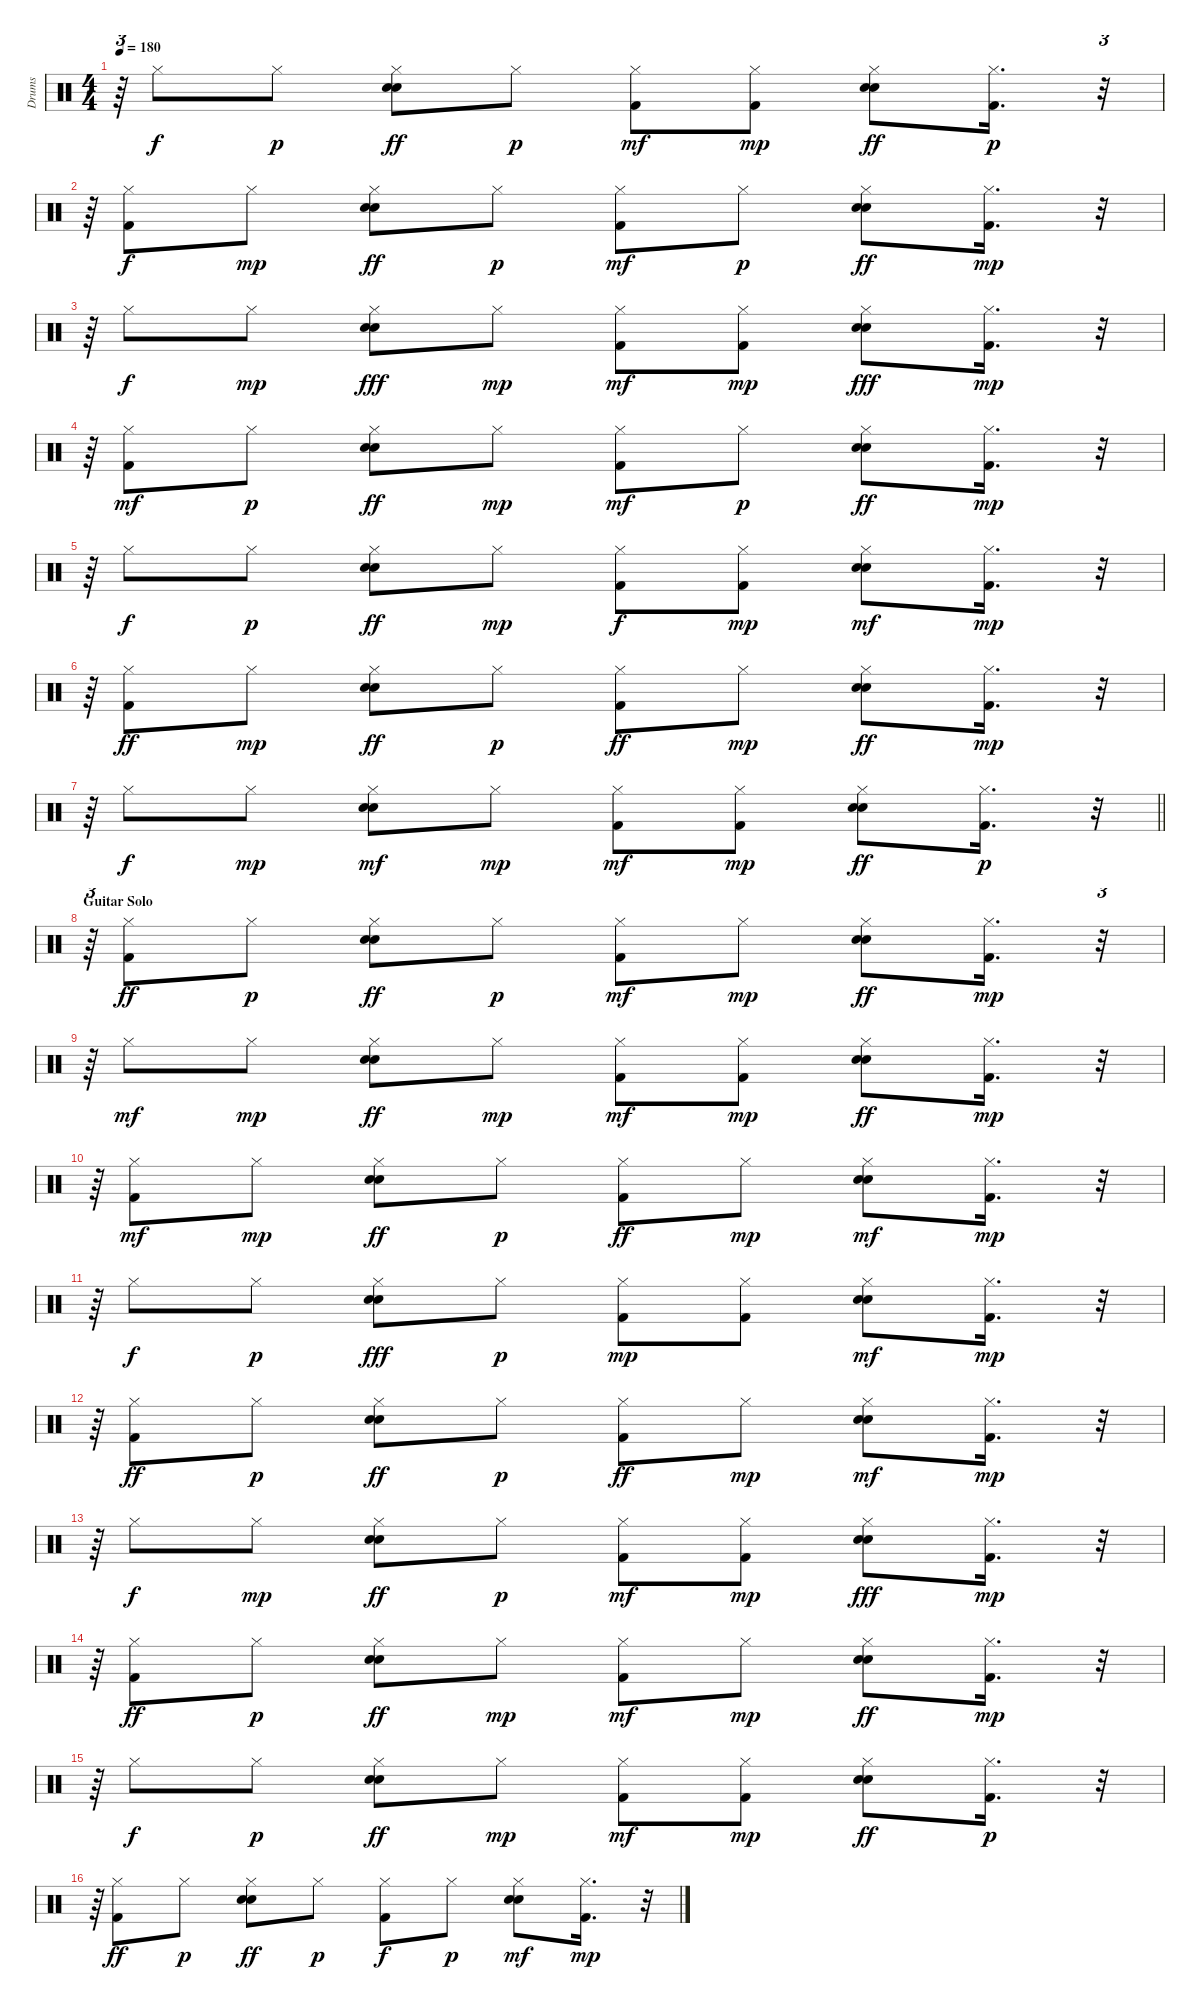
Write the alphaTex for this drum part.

\track ("Drums" "Drums") {instrument percussion}
\staff {score}
\articulation defaults
\ts (4 4)
\tempo 180
\clef neutral
\ks c
r.64{tu (3 2) dy mp} "Hi-Hat (closed)".8{dy f} "Hi-Hat (closed)".8{dy p} ("Electric Snare (hit)" "Snare (hit) 2" "Hi-Hat (closed)").8{dy ff} "Hi-Hat (closed)".8{dy p} ("Kick (hit) 2" "Hi-Hat (closed)").8{dy mf} ("Kick (hit) 2" "Hi-Hat (closed)").8{dy mp} ("Electric Snare (hit)" "Snare (hit) 2" "Hi-Hat (closed)").8{dy ff} ("Kick (hit) 2" "Hi-Hat (closed)").16{d dy p} r.32{tu (3 2)} |
r.64{tu (3 2)} ("Kick (hit) 2" "Hi-Hat (closed)").8{dy f} "Hi-Hat (closed)".8{dy mp} ("Electric Snare (hit)" "Snare (hit) 2" "Hi-Hat (closed)").8{dy ff} "Hi-Hat (closed)".8{dy p} ("Kick (hit) 2" "Hi-Hat (closed)").8{dy mf} "Hi-Hat (closed)".8{dy p} ("Electric Snare (hit)" "Snare (hit) 2" "Hi-Hat (closed)").8{dy ff} ("Kick (hit) 2" "Hi-Hat (closed)").16{d dy mp} r.32{tu (3 2)} |
r.64{tu (3 2)} "Hi-Hat (closed)".8{dy f} "Hi-Hat (closed)".8{dy mp} ("Electric Snare (hit)" "Snare (hit) 2" "Hi-Hat (closed)").8{dy fff} "Hi-Hat (closed)".8{dy mp} ("Kick (hit) 2" "Hi-Hat (closed)").8{dy mf} ("Kick (hit) 2" "Hi-Hat (closed)").8{dy mp} ("Electric Snare (hit)" "Snare (hit) 2" "Hi-Hat (closed)").8{dy fff} ("Kick (hit) 2" "Hi-Hat (closed)").16{d dy mp} r.32{tu (3 2)} |
r.64{tu (3 2)} ("Kick (hit) 2" "Hi-Hat (closed)").8{dy mf} "Hi-Hat (closed)".8{dy p} ("Electric Snare (hit)" "Snare (hit) 2" "Hi-Hat (closed)").8{dy ff} "Hi-Hat (closed)".8{dy mp} ("Kick (hit) 2" "Hi-Hat (closed)").8{dy mf} "Hi-Hat (closed)".8{dy p} ("Electric Snare (hit)" "Snare (hit) 2" "Hi-Hat (closed)").8{dy ff} ("Kick (hit) 2" "Hi-Hat (closed)").16{d dy mp} r.32{tu (3 2)} |
r.64{tu (3 2)} "Hi-Hat (closed)".8{dy f} "Hi-Hat (closed)".8{dy p} ("Electric Snare (hit)" "Snare (hit) 2" "Hi-Hat (closed)").8{dy ff} "Hi-Hat (closed)".8{dy mp} ("Kick (hit) 2" "Hi-Hat (closed)").8{dy f} ("Kick (hit) 2" "Hi-Hat (closed)").8{dy mp} ("Electric Snare (hit)" "Snare (hit) 2" "Hi-Hat (closed)").8{dy mf} ("Kick (hit) 2" "Hi-Hat (closed)").16{d dy mp} r.32{tu (3 2)} |
r.64{tu (3 2)} ("Kick (hit) 2" "Hi-Hat (closed)").8{dy ff} "Hi-Hat (closed)".8{dy mp} ("Electric Snare (hit)" "Snare (hit) 2" "Hi-Hat (closed)").8{dy ff} "Hi-Hat (closed)".8{dy p} ("Kick (hit) 2" "Hi-Hat (closed)").8{dy ff} "Hi-Hat (closed)".8{dy mp} ("Electric Snare (hit)" "Snare (hit) 2" "Hi-Hat (closed)").8{dy ff} ("Kick (hit) 2" "Hi-Hat (closed)").16{d dy mp} r.32{tu (3 2)} |
\barLineRight lightlight
r.64{tu (3 2)} "Hi-Hat (closed)".8{dy f} "Hi-Hat (closed)".8{dy mp} ("Electric Snare (hit)" "Snare (hit) 2" "Hi-Hat (closed)").8{dy mf} "Hi-Hat (closed)".8{dy mp} ("Kick (hit) 2" "Hi-Hat (closed)").8{dy mf} ("Kick (hit) 2" "Hi-Hat (closed)").8{dy mp} ("Electric Snare (hit)" "Snare (hit) 2" "Hi-Hat (closed)").8{dy ff} ("Kick (hit) 2" "Hi-Hat (closed)").16{d dy p} r.32{tu (3 2)} |
\section ("" "Guitar Solo")
r.64{tu (3 2)} ("Kick (hit) 2" "Hi-Hat (closed)").8{dy ff} "Hi-Hat (closed)".8{dy p} ("Electric Snare (hit)" "Snare (hit) 2" "Hi-Hat (closed)").8{dy ff} "Hi-Hat (closed)".8{dy p} ("Kick (hit) 2" "Hi-Hat (closed)").8{dy mf} "Hi-Hat (closed)".8{dy mp} ("Electric Snare (hit)" "Snare (hit) 2" "Hi-Hat (closed)").8{dy ff} ("Kick (hit) 2" "Hi-Hat (closed)").16{d dy mp} r.32{tu (3 2)} |
r.64{tu (3 2)} "Hi-Hat (closed)".8{dy mf} "Hi-Hat (closed)".8{dy mp} ("Electric Snare (hit)" "Snare (hit) 2" "Hi-Hat (closed)").8{dy ff} "Hi-Hat (closed)".8{dy mp} ("Kick (hit) 2" "Hi-Hat (closed)").8{dy mf} ("Kick (hit) 2" "Hi-Hat (closed)").8{dy mp} ("Electric Snare (hit)" "Snare (hit) 2" "Hi-Hat (closed)").8{dy ff} ("Kick (hit) 2" "Hi-Hat (closed)").16{d dy mp} r.32{tu (3 2)} |
r.64{tu (3 2)} ("Kick (hit) 2" "Hi-Hat (closed)").8{dy mf} "Hi-Hat (closed)".8{dy mp} ("Electric Snare (hit)" "Snare (hit) 2" "Hi-Hat (closed)").8{dy ff} "Hi-Hat (closed)".8{dy p} ("Kick (hit) 2" "Hi-Hat (closed)").8{dy ff} "Hi-Hat (closed)".8{dy mp} ("Electric Snare (hit)" "Snare (hit) 2" "Hi-Hat (closed)").8{dy mf} ("Kick (hit) 2" "Hi-Hat (closed)").16{d dy mp} r.32{tu (3 2)} |
r.64{tu (3 2)} "Hi-Hat (closed)".8{dy f} "Hi-Hat (closed)".8{dy p} ("Electric Snare (hit)" "Snare (hit) 2" "Hi-Hat (closed)").8{dy fff} "Hi-Hat (closed)".8{dy p} ("Kick (hit) 2" "Hi-Hat (closed)").8{dy mp} ("Kick (hit) 2" "Hi-Hat (closed)").8 ("Electric Snare (hit)" "Snare (hit) 2" "Hi-Hat (closed)").8{dy mf} ("Kick (hit) 2" "Hi-Hat (closed)").16{d dy mp} r.32{tu (3 2)} |
r.64{tu (3 2)} ("Kick (hit) 2" "Hi-Hat (closed)").8{dy ff} "Hi-Hat (closed)".8{dy p} ("Electric Snare (hit)" "Snare (hit) 2" "Hi-Hat (closed)").8{dy ff} "Hi-Hat (closed)".8{dy p} ("Kick (hit) 2" "Hi-Hat (closed)").8{dy ff} "Hi-Hat (closed)".8{dy mp} ("Electric Snare (hit)" "Snare (hit) 2" "Hi-Hat (closed)").8{dy mf} ("Kick (hit) 2" "Hi-Hat (closed)").16{d dy mp} r.32{tu (3 2)} |
r.64{tu (3 2)} "Hi-Hat (closed)".8{dy f} "Hi-Hat (closed)".8{dy mp} ("Electric Snare (hit)" "Snare (hit) 2" "Hi-Hat (closed)").8{dy ff} "Hi-Hat (closed)".8{dy p} ("Kick (hit) 2" "Hi-Hat (closed)").8{dy mf} ("Kick (hit) 2" "Hi-Hat (closed)").8{dy mp} ("Electric Snare (hit)" "Snare (hit) 2" "Hi-Hat (closed)").8{dy fff} ("Kick (hit) 2" "Hi-Hat (closed)").16{d dy mp} r.32{tu (3 2)} |
r.64{tu (3 2)} ("Kick (hit) 2" "Hi-Hat (closed)").8{dy ff} "Hi-Hat (closed)".8{dy p} ("Electric Snare (hit)" "Snare (hit) 2" "Hi-Hat (closed)").8{dy ff} "Hi-Hat (closed)".8{dy mp} ("Kick (hit) 2" "Hi-Hat (closed)").8{dy mf} "Hi-Hat (closed)".8{dy mp} ("Electric Snare (hit)" "Snare (hit) 2" "Hi-Hat (closed)").8{dy ff} ("Kick (hit) 2" "Hi-Hat (closed)").16{d dy mp} r.32{tu (3 2)} |
r.64{tu (3 2)} "Hi-Hat (closed)".8{dy f} "Hi-Hat (closed)".8{dy p} ("Electric Snare (hit)" "Snare (hit) 2" "Hi-Hat (closed)").8{dy ff} "Hi-Hat (closed)".8{dy mp} ("Kick (hit) 2" "Hi-Hat (closed)").8{dy mf} ("Kick (hit) 2" "Hi-Hat (closed)").8{dy mp} ("Electric Snare (hit)" "Snare (hit) 2" "Hi-Hat (closed)").8{dy ff} ("Kick (hit) 2" "Hi-Hat (closed)").16{d dy p} r.32{tu (3 2)} |
r.64{tu (3 2)} ("Kick (hit) 2" "Hi-Hat (closed)").8{dy ff} "Hi-Hat (closed)".8{dy p} ("Electric Snare (hit)" "Snare (hit) 2" "Hi-Hat (closed)").8{dy ff} "Hi-Hat (closed)".8{dy p} ("Kick (hit) 2" "Hi-Hat (closed)").8{dy f} "Hi-Hat (closed)".8{dy p} ("Electric Snare (hit)" "Snare (hit) 2" "Hi-Hat (closed)").8{dy mf} ("Kick (hit) 2" "Hi-Hat (closed)").16{d dy mp} r.32{tu (3 2)}
